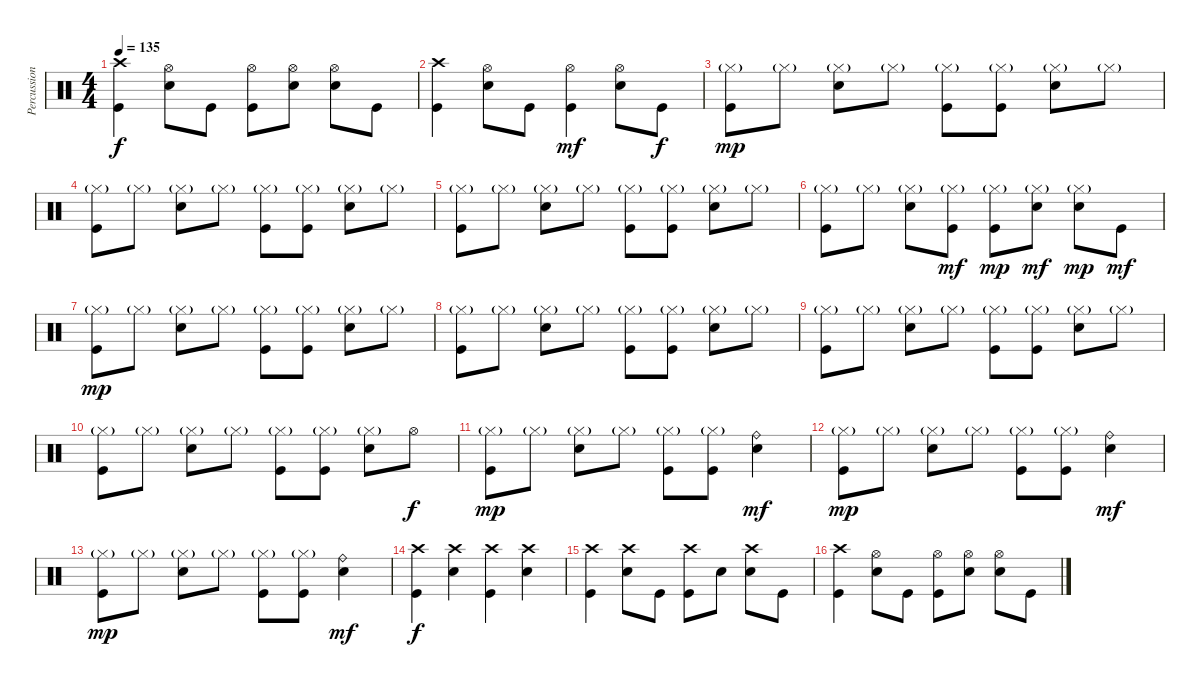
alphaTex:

\track ("Percussion" "Percussion") {instrument percussion}
\staff {score}
\articulation defaults
\ts (4 4)
\tempo 135
\clef neutral
\ks c
("Crash high (hit)" "Kick (hit)").4{dy f} ("Hi-Hat (open)" "Electric Snare (hit)").8 "Kick (hit)".8 ("Hi-Hat (open)" "Kick (hit)").8 ("Hi-Hat (open)" "Electric Snare (hit)").8 ("Hi-Hat (open)" "Electric Snare (hit)").8 "Kick (hit)".8 |
("Crash high (hit)" "Kick (hit)").4 ("Hi-Hat (open)" "Electric Snare (hit)").8 "Kick (hit)".8 ("Hi-Hat (open)" "Kick (hit)").4{dy mf} ("Hi-Hat (open)" "Electric Snare (hit)").8 "Kick (hit)".8{dy f} |
("Hi-Hat (closed)"{g} "Kick (hit)").8{dy mp} "Hi-Hat (closed)"{g}.8 ("Hi-Hat (closed)"{g} "Electric Snare (hit)").8 "Hi-Hat (closed)"{g}.8 ("Hi-Hat (closed)"{g} "Kick (hit)").8 ("Hi-Hat (closed)"{g} "Kick (hit)").8 ("Hi-Hat (closed)"{g} "Electric Snare (hit)").8 "Hi-Hat (closed)"{g}.8 |
("Hi-Hat (closed)"{g} "Kick (hit)").8 "Hi-Hat (closed)"{g}.8 ("Hi-Hat (closed)"{g} "Electric Snare (hit)").8 "Hi-Hat (closed)"{g}.8 ("Hi-Hat (closed)"{g} "Kick (hit)").8 ("Hi-Hat (closed)"{g} "Kick (hit)").8 ("Hi-Hat (closed)"{g} "Electric Snare (hit)").8 "Hi-Hat (closed)"{g}.8 |
("Hi-Hat (closed)"{g} "Kick (hit)").8 "Hi-Hat (closed)"{g}.8 ("Hi-Hat (closed)"{g} "Electric Snare (hit)").8 "Hi-Hat (closed)"{g}.8 ("Hi-Hat (closed)"{g} "Kick (hit)").8 ("Hi-Hat (closed)"{g} "Kick (hit)").8 ("Hi-Hat (closed)"{g} "Electric Snare (hit)").8 "Hi-Hat (closed)"{g}.8 |
("Hi-Hat (closed)"{g} "Kick (hit)").8 "Hi-Hat (closed)"{g}.8 ("Hi-Hat (closed)"{g} "Electric Snare (hit)").8 ("Hi-Hat (closed)"{g} "Kick (hit)").8{dy mf} ("Hi-Hat (closed)"{g} "Kick (hit)").8{dy mp} ("Hi-Hat (closed)"{g} "Electric Snare (hit)").8{dy mf} ("Hi-Hat (closed)"{g} "Electric Snare (hit)").8{dy mp} "Kick (hit)".8{dy mf} |
("Hi-Hat (closed)"{g} "Kick (hit)").8{dy mp} "Hi-Hat (closed)"{g}.8 ("Hi-Hat (closed)"{g} "Electric Snare (hit)").8 "Hi-Hat (closed)"{g}.8 ("Hi-Hat (closed)"{g} "Kick (hit)").8 ("Hi-Hat (closed)"{g} "Kick (hit)").8 ("Hi-Hat (closed)"{g} "Electric Snare (hit)").8 "Hi-Hat (closed)"{g}.8 |
("Hi-Hat (closed)"{g} "Kick (hit)").8 "Hi-Hat (closed)"{g}.8 ("Hi-Hat (closed)"{g} "Electric Snare (hit)").8 "Hi-Hat (closed)"{g}.8 ("Hi-Hat (closed)"{g} "Kick (hit)").8 ("Hi-Hat (closed)"{g} "Kick (hit)").8 ("Hi-Hat (closed)"{g} "Electric Snare (hit)").8 "Hi-Hat (closed)"{g}.8 |
("Hi-Hat (closed)"{g} "Kick (hit)").8 "Hi-Hat (closed)"{g}.8 ("Hi-Hat (closed)"{g} "Electric Snare (hit)").8 "Hi-Hat (closed)"{g}.8 ("Hi-Hat (closed)"{g} "Kick (hit)").8 ("Hi-Hat (closed)"{g} "Kick (hit)").8 ("Hi-Hat (closed)"{g} "Electric Snare (hit)").8 "Hi-Hat (closed)"{g}.8 |
("Hi-Hat (closed)"{g} "Kick (hit)").8 "Hi-Hat (closed)"{g}.8 ("Hi-Hat (closed)"{g} "Electric Snare (hit)").8 "Hi-Hat (closed)"{g}.8 ("Hi-Hat (closed)"{g} "Kick (hit)").8 ("Hi-Hat (closed)"{g} "Kick (hit)").8 ("Hi-Hat (closed)"{g} "Electric Snare (hit)").8 "Hi-Hat (open)".8{dy f} |
("Hi-Hat (closed)"{g} "Kick (hit)").8{dy mp} "Hi-Hat (closed)"{g}.8 ("Hi-Hat (closed)"{g} "Electric Snare (hit)").8 "Hi-Hat (closed)"{g}.8 ("Hi-Hat (closed)"{g} "Kick (hit)").8 ("Hi-Hat (closed)"{g} "Kick (hit)").8 ("Ride (bell)" "Electric Snare (hit)").4{dy mf} |
("Hi-Hat (closed)"{g} "Kick (hit)").8{dy mp} "Hi-Hat (closed)"{g}.8 ("Hi-Hat (closed)"{g} "Electric Snare (hit)").8 "Hi-Hat (closed)"{g}.8 ("Hi-Hat (closed)"{g} "Kick (hit)").8 ("Hi-Hat (closed)"{g} "Kick (hit)").8 ("Ride (bell)" "Electric Snare (hit)").4{dy mf} |
("Hi-Hat (closed)"{g} "Kick (hit)").8{dy mp} "Hi-Hat (closed)"{g}.8 ("Hi-Hat (closed)"{g} "Electric Snare (hit)").8 "Hi-Hat (closed)"{g}.8 ("Hi-Hat (closed)"{g} "Kick (hit)").8 ("Hi-Hat (closed)"{g} "Kick (hit)").8 ("Ride (bell)" "Electric Snare (hit)").4{dy mf} |
("Crash high (hit)" "Kick (hit)").4{dy f} ("Crash high (hit)" "Electric Snare (hit)").4 ("Crash high (hit)" "Kick (hit)").4 ("Crash high (hit)" "Electric Snare (hit)").4 |
("Crash high (hit)" "Kick (hit)").4 ("Crash high (hit)" "Electric Snare (hit)").8 "Kick (hit)".8 ("Crash high (hit)" "Kick (hit)").8 "Electric Snare (hit)".8 ("Crash high (hit)" "Electric Snare (hit)").8 "Kick (hit)".8 |
("Crash high (hit)" "Kick (hit)").4 ("Hi-Hat (open)" "Electric Snare (hit)").8 "Kick (hit)".8 ("Hi-Hat (open)" "Kick (hit)").8 ("Hi-Hat (open)" "Electric Snare (hit)").8 ("Hi-Hat (open)" "Electric Snare (hit)").8 "Kick (hit)".8
